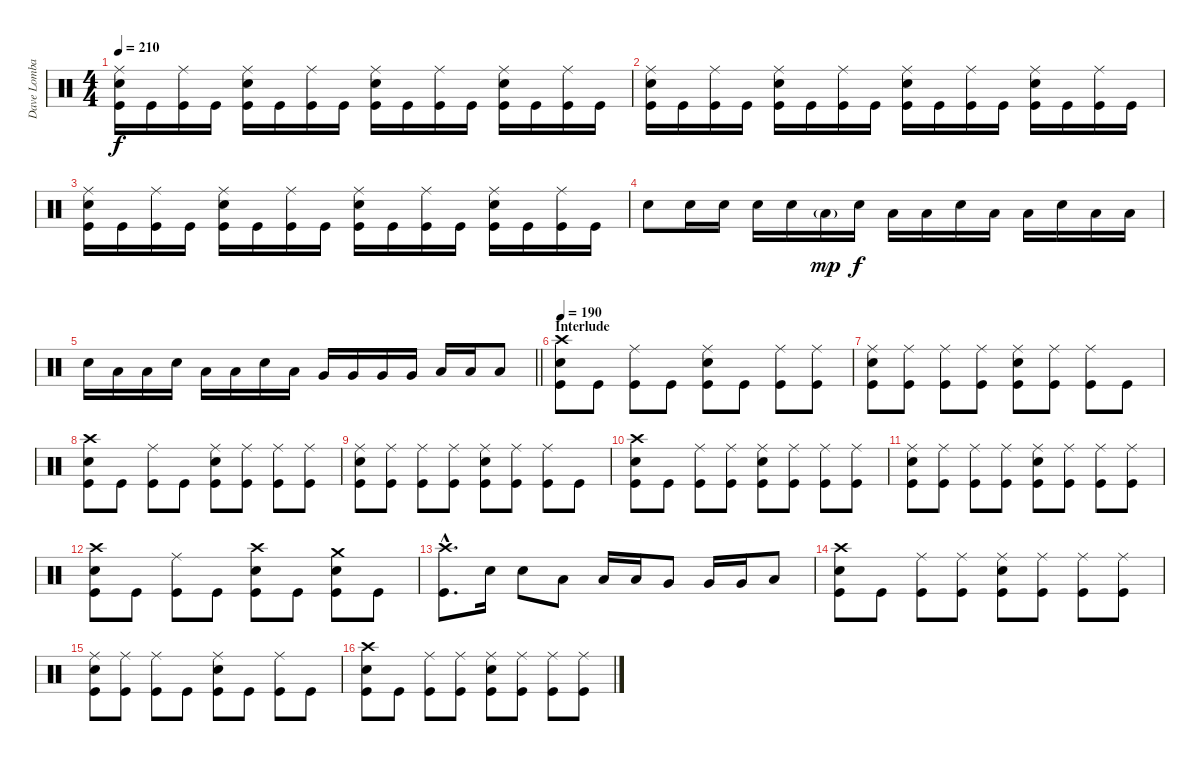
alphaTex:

\track ("Dave Lombardo" "Dave Lomba") {instrument percussion}
\staff {score}
\articulation defaults
\ts (4 4)
\tempo 210
\clef neutral
\ks c
("Ride (middle)" "Electric Snare (hit)" "Kick (hit)").16{dy f} "Kick (hit)".16 ("Ride (middle)" "Kick (hit)").16 "Kick (hit)".16 ("Ride (middle)" "Electric Snare (hit)" "Kick (hit)").16 "Kick (hit)".16 ("Ride (middle)" "Kick (hit)").16 "Kick (hit)".16 ("Ride (middle)" "Electric Snare (hit)" "Kick (hit)").16 "Kick (hit)".16 ("Ride (middle)" "Kick (hit)").16 "Kick (hit)".16 ("Ride (middle)" "Electric Snare (hit)" "Kick (hit)").16 "Kick (hit)".16 ("Ride (middle)" "Kick (hit)").16 "Kick (hit)".16 |
("Ride (middle)" "Electric Snare (hit)" "Kick (hit)").16 "Kick (hit)".16 ("Ride (middle)" "Kick (hit)").16 "Kick (hit)".16 ("Ride (middle)" "Electric Snare (hit)" "Kick (hit)").16 "Kick (hit)".16 ("Ride (middle)" "Kick (hit)").16 "Kick (hit)".16 ("Ride (middle)" "Electric Snare (hit)" "Kick (hit)").16 "Kick (hit)".16 ("Ride (middle)" "Kick (hit)").16 "Kick (hit)".16 ("Ride (middle)" "Electric Snare (hit)" "Kick (hit)").16 "Kick (hit)".16 ("Ride (middle)" "Kick (hit)").16 "Kick (hit)".16 |
("Ride (middle)" "Electric Snare (hit)" "Kick (hit)").16 "Kick (hit)".16 ("Ride (middle)" "Kick (hit)").16 "Kick (hit)".16 ("Ride (middle)" "Electric Snare (hit)" "Kick (hit)").16 "Kick (hit)".16 ("Ride (middle)" "Kick (hit)").16 "Kick (hit)".16 ("Ride (middle)" "Electric Snare (hit)" "Kick (hit)").16 "Kick (hit)".16 ("Ride (middle)" "Kick (hit)").16 "Kick (hit)".16 ("Ride (middle)" "Electric Snare (hit)" "Kick (hit)").16 "Kick (hit)".16 ("Ride (middle)" "Kick (hit)").16 "Kick (hit)".16 |
"Electric Snare (hit)".8 "Electric Snare (hit)".16 "Electric Snare (hit)".16 "Electric Snare (hit)".16 "Electric Snare (hit)".16 "Low Tom (hit)"{g}.16{dy mp} "Electric Snare (hit)".16{dy f} "Low Tom (hit)".16 "Low Tom (hit)".16 "Electric Snare (hit)".16 "Low Tom (hit)".16 "Low Tom (hit)".16 "Electric Snare (hit)".16 "Low Tom (hit)".16 "Low Tom (hit)".16 |
\barLineRight lightlight "Electric Snare (hit)".16 "Low Tom (hit)".16 "Low Tom (hit)".16 "Electric Snare (hit)".16 "Low Tom (hit)".16 "Low Tom (hit)".16 "Electric Snare (hit)".16 "Low Tom (hit)".16 "Very Low Tom (hit)".16 "Very Low Tom (hit)".16 "Very Low Tom (hit)".16 "Very Low Tom (hit)".16 "Low Floor Tom (hit)".16 "Low Floor Tom (hit)".16 "Low Floor Tom (hit)".8
|
\section ("" "Interlude")
\tempo 190
("Crash high (hit)" "Electric Snare (hit)" "Kick (hit)").8 "Kick (hit)".8 ("Ride (middle)" "Kick (hit)").8 "Kick (hit)".8 ("Ride (middle)" "Electric Snare (hit)" "Kick (hit)").8 "Kick (hit)".8 ("Ride (middle)" "Kick (hit)").8 ("Ride (middle)" "Kick (hit)").8 |
("Ride (middle)" "Electric Snare (hit)" "Kick (hit)").8 ("Ride (middle)" "Kick (hit)").8 ("Ride (middle)" "Kick (hit)").8 ("Ride (middle)" "Kick (hit)").8 ("Ride (middle)" "Electric Snare (hit)" "Kick (hit)").8 ("Ride (middle)" "Kick (hit)").8 ("Ride (middle)" "Kick (hit)").8 "Kick (hit)".8 |
("Crash high (hit)" "Electric Snare (hit)" "Kick (hit)").8 "Kick (hit)".8 ("Ride (middle)" "Kick (hit)").8 "Kick (hit)".8 ("Ride (middle)" "Electric Snare (hit)" "Kick (hit)").8 ("Ride (middle)" "Kick (hit)").8 ("Ride (middle)" "Kick (hit)").8 ("Ride (middle)" "Kick (hit)").8 |
("Ride (middle)" "Electric Snare (hit)" "Kick (hit)").8 ("Ride (middle)" "Kick (hit)").8 ("Ride (middle)" "Kick (hit)").8 ("Ride (middle)" "Kick (hit)").8 ("Ride (middle)" "Electric Snare (hit)" "Kick (hit)").8 ("Ride (middle)" "Kick (hit)").8 ("Ride (middle)" "Kick (hit)").8 "Kick (hit)".8 |
("Crash high (hit)" "Electric Snare (hit)" "Kick (hit)").8 "Kick (hit)".8 ("Ride (middle)" "Kick (hit)").8 ("Ride (middle)" "Kick (hit)").8 ("Ride (middle)" "Electric Snare (hit)" "Kick (hit)").8 ("Ride (middle)" "Kick (hit)").8 ("Ride (middle)" "Kick (hit)").8 ("Ride (middle)" "Kick (hit)").8 |
("Ride (middle)" "Electric Snare (hit)" "Kick (hit)").8 ("Ride (middle)" "Kick (hit)").8 ("Ride (middle)" "Kick (hit)").8 ("Ride (middle)" "Kick (hit)").8 ("Ride (middle)" "Electric Snare (hit)" "Kick (hit)").8 ("Ride (middle)" "Kick (hit)").8 ("Ride (middle)" "Kick (hit)").8 ("Ride (middle)" "Kick (hit)").8 |
("Crash high (hit)" "Electric Snare (hit)" "Kick (hit)").8 "Kick (hit)".8 ("Ride (middle)" "Kick (hit)").8 "Kick (hit)".8 ("Crash high (hit)" "Electric Snare (hit)" "Kick (hit)").8 "Kick (hit)".8 ("Crash medium (hit)" "Electric Snare (hit)" "Kick (hit)").8 "Kick (hit)".8 |
("Crash high (hit)"{hac} "Kick (hit)"{hac}).8{d} "Electric Snare (hit)".16 "Electric Snare (hit)".8 "Low Tom (hit)".8 "Low Tom (hit)".16 "Low Tom (hit)".16 "Very Low Tom (hit)".8 "Very Low Tom (hit)".16 "Very Low Tom (hit)".16 "Low Floor Tom (hit)".8 |
("Crash high (hit)" "Electric Snare (hit)" "Kick (hit)").8 "Kick (hit)".8 ("Ride (middle)" "Kick (hit)").8 ("Ride (middle)" "Kick (hit)").8 ("Ride (middle)" "Electric Snare (hit)" "Kick (hit)").8 ("Ride (middle)" "Kick (hit)").8 ("Ride (middle)" "Kick (hit)").8 ("Ride (middle)" "Kick (hit)").8 |
("Ride (middle)" "Electric Snare (hit)" "Kick (hit)").8 ("Ride (middle)" "Kick (hit)").8 ("Ride (middle)" "Kick (hit)").8 "Kick (hit)".8 ("Ride (middle)" "Electric Snare (hit)" "Kick (hit)").8 "Kick (hit)".8 ("Ride (middle)" "Kick (hit)").8 "Kick (hit)".8 |
("Crash high (hit)" "Electric Snare (hit)" "Kick (hit)").8 "Kick (hit)".8 ("Ride (middle)" "Kick (hit)").8 ("Ride (middle)" "Kick (hit)").8 ("Ride (middle)" "Electric Snare (hit)" "Kick (hit)").8 ("Ride (middle)" "Kick (hit)").8 ("Ride (middle)" "Kick (hit)").8 ("Ride (middle)" "Kick (hit)").8
